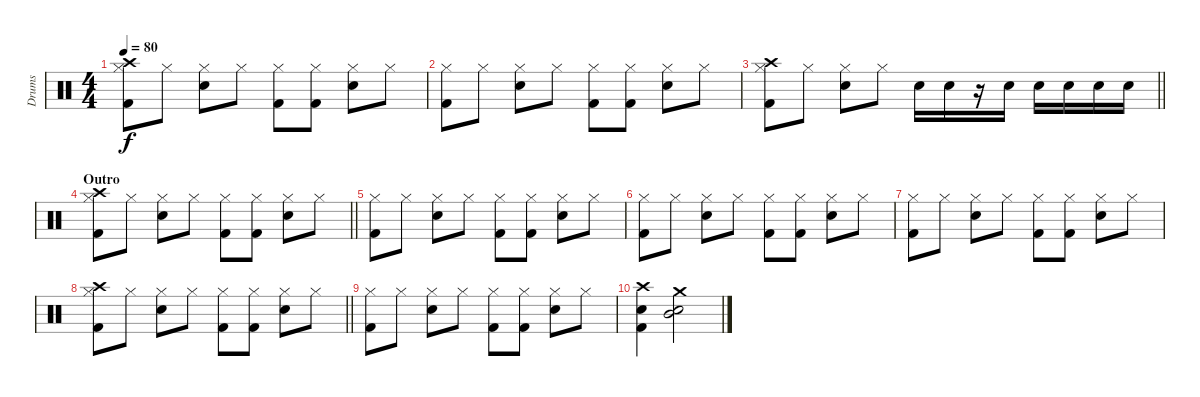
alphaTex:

\track ("Drums" "Drums") {instrument percussion}
\staff {score}
\articulation defaults
\ts (4 4)
\tempo 80
\clef neutral
\ks c
("Hi-Hat (closed)" "Crash high (hit)" "Kick (hit) 2").8{dy f} "Hi-Hat (closed)".8 ("Hi-Hat (closed)" "Snare (hit) 2").8 "Hi-Hat (closed)".8 ("Hi-Hat (closed)" "Kick (hit) 2").8 ("Hi-Hat (closed)" "Kick (hit) 2").8 ("Hi-Hat (closed)" "Snare (hit) 2").8 "Hi-Hat (closed)".8 |
("Hi-Hat (closed)" "Kick (hit) 2").8 "Hi-Hat (closed)".8 ("Hi-Hat (closed)" "Snare (hit) 2").8 "Hi-Hat (closed)".8 ("Hi-Hat (closed)" "Kick (hit) 2").8 ("Hi-Hat (closed)" "Kick (hit) 2").8 ("Hi-Hat (closed)" "Snare (hit) 2").8 "Hi-Hat (closed)".8 |
\barLineRight lightlight
("Hi-Hat (closed)" "Crash high (hit)" "Kick (hit) 2").8 "Hi-Hat (closed)".8 ("Hi-Hat (closed)" "Snare (hit) 2").8 "Hi-Hat (closed)".8 "Snare (hit) 2".16 "Snare (hit) 2".16 r.16 "Snare (hit) 2".16 "Snare (hit) 2".16 "Snare (hit) 2".16 "Snare (hit) 2".16 "Snare (hit) 2".16 |
\section ("" "Outro")
\barLineRight lightlight
("Hi-Hat (closed)" "Crash high (hit)" "Kick (hit) 2").8 "Hi-Hat (closed)".8 ("Hi-Hat (closed)" "Snare (hit) 2").8 "Hi-Hat (closed)".8 ("Hi-Hat (closed)" "Kick (hit) 2").8 ("Hi-Hat (closed)" "Kick (hit) 2").8 ("Hi-Hat (closed)" "Snare (hit) 2").8 "Hi-Hat (closed)".8 |
("Hi-Hat (closed)" "Kick (hit) 2").8 "Hi-Hat (closed)".8 ("Hi-Hat (closed)" "Snare (hit) 2").8 "Hi-Hat (closed)".8 ("Hi-Hat (closed)" "Kick (hit) 2").8 ("Hi-Hat (closed)" "Kick (hit) 2").8 ("Hi-Hat (closed)" "Snare (hit) 2").8 "Hi-Hat (closed)".8 |
("Hi-Hat (closed)" "Kick (hit) 2").8 "Hi-Hat (closed)".8 ("Hi-Hat (closed)" "Snare (hit) 2").8 "Hi-Hat (closed)".8 ("Hi-Hat (closed)" "Kick (hit) 2").8 ("Hi-Hat (closed)" "Kick (hit) 2").8 ("Hi-Hat (closed)" "Snare (hit) 2").8 "Hi-Hat (closed)".8 |
("Hi-Hat (closed)" "Kick (hit) 2").8 "Hi-Hat (closed)".8 ("Hi-Hat (closed)" "Snare (hit) 2").8 "Hi-Hat (closed)".8 ("Hi-Hat (closed)" "Kick (hit) 2").8 ("Hi-Hat (closed)" "Kick (hit) 2").8 ("Hi-Hat (closed)" "Snare (hit) 2").8 "Hi-Hat (closed)".8 |
\barLineRight lightlight
("Hi-Hat (closed)" "Crash high (hit)" "Kick (hit) 2").8 "Hi-Hat (closed)".8 ("Hi-Hat (closed)" "Snare (hit) 2").8 "Hi-Hat (closed)".8 ("Hi-Hat (closed)" "Kick (hit) 2").8 ("Hi-Hat (closed)" "Kick (hit) 2").8 ("Hi-Hat (closed)" "Snare (hit) 2").8 "Hi-Hat (closed)".8 |
("Hi-Hat (closed)" "Kick (hit) 2").8 "Hi-Hat (closed)".8 ("Hi-Hat (closed)" "Snare (hit) 2").8 "Hi-Hat (closed)".8 ("Hi-Hat (closed)" "Kick (hit) 2").8 ("Hi-Hat (closed)" "Kick (hit) 2").8 ("Hi-Hat (closed)" "Snare (hit) 2").8 "Hi-Hat (closed)".8 |
("Crash high (hit)" "Kick (hit) 2" "Snare (hit) 2").4 ("Crash medium (hit)" "Snare (hit) 2" "Mid Tom (hit)").2
